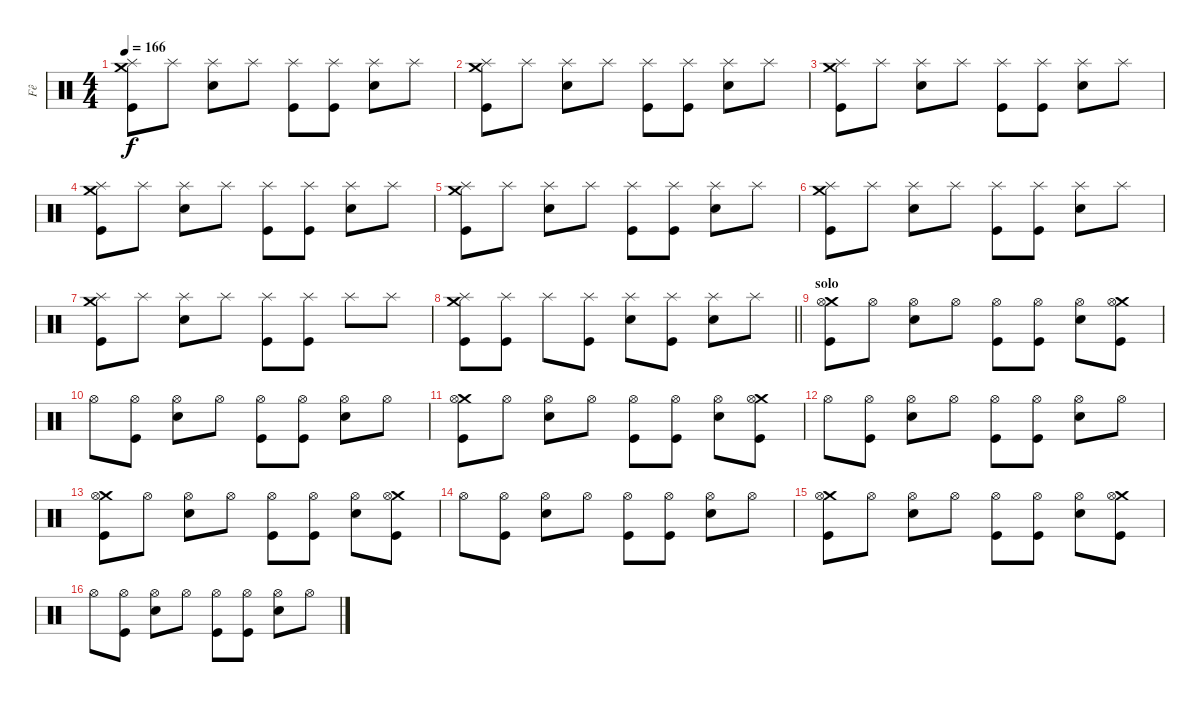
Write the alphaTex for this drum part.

\track ("Fê" "Fê") {instrument percussion}
\staff {score}
\articulation defaults
\ts (4 4)
\tempo 166
\clef neutral
\ks c
("Crash medium (hit)" "Splash (hit)" "Kick (hit)").8{dy f} "Splash (hit)".8 ("Splash (hit)" "Electric Snare (hit)").8 "Splash (hit)".8 ("Splash (hit)" "Kick (hit)").8 ("Splash (hit)" "Kick (hit)").8 ("Splash (hit)" "Electric Snare (hit)").8 "Splash (hit)".8 |
("Crash medium (hit)" "Splash (hit)" "Kick (hit)").8 "Splash (hit)".8 ("Splash (hit)" "Electric Snare (hit)").8 "Splash (hit)".8 ("Splash (hit)" "Kick (hit)").8 ("Splash (hit)" "Kick (hit)").8 ("Splash (hit)" "Electric Snare (hit)").8 "Splash (hit)".8 |
("Crash medium (hit)" "Splash (hit)" "Kick (hit)").8 "Splash (hit)".8 ("Splash (hit)" "Electric Snare (hit)").8 "Splash (hit)".8 ("Splash (hit)" "Kick (hit)").8 ("Splash (hit)" "Kick (hit)").8 ("Splash (hit)" "Electric Snare (hit)").8 "Splash (hit)".8 |
("Crash medium (hit)" "Splash (hit)" "Kick (hit)").8 "Splash (hit)".8 ("Splash (hit)" "Electric Snare (hit)").8 "Splash (hit)".8 ("Splash (hit)" "Kick (hit)").8 ("Splash (hit)" "Kick (hit)").8 ("Splash (hit)" "Electric Snare (hit)").8 "Splash (hit)".8 |
("Crash medium (hit)" "Splash (hit)" "Kick (hit)").8 "Splash (hit)".8 ("Splash (hit)" "Electric Snare (hit)").8 "Splash (hit)".8 ("Splash (hit)" "Kick (hit)").8 ("Splash (hit)" "Kick (hit)").8 ("Splash (hit)" "Electric Snare (hit)").8 "Splash (hit)".8 |
("Crash medium (hit)" "Splash (hit)" "Kick (hit)").8 "Splash (hit)".8 ("Splash (hit)" "Electric Snare (hit)").8 "Splash (hit)".8 ("Splash (hit)" "Kick (hit)").8 ("Splash (hit)" "Kick (hit)").8 ("Splash (hit)" "Electric Snare (hit)").8 "Splash (hit)".8 |
("Crash medium (hit)" "Splash (hit)" "Kick (hit)").8 "Splash (hit)".8 ("Splash (hit)" "Electric Snare (hit)").8 "Splash (hit)".8 ("Splash (hit)" "Kick (hit)").8 ("Splash (hit)" "Kick (hit)").8 "Splash (hit)".8 "Splash (hit)".8 |
\barLineRight lightlight
("Crash medium (hit)" "Splash (hit)" "Kick (hit)").8 ("Splash (hit)" "Kick (hit)").8 "Splash (hit)".8 ("Splash (hit)" "Kick (hit)").8 ("Splash (hit)" "Electric Snare (hit)").8 ("Splash (hit)" "Kick (hit)").8 ("Splash (hit)" "Electric Snare (hit)").8 "Splash (hit)".8 |
\section ("" "solo")
("Crash medium (hit)" "Hi-Hat (open)" "Kick (hit)").8 "Hi-Hat (open)".8 ("Hi-Hat (open)" "Electric Snare (hit)").8 "Hi-Hat (open)".8 ("Hi-Hat (open)" "Kick (hit)").8 ("Hi-Hat (open)" "Kick (hit)").8 ("Hi-Hat (open)" "Electric Snare (hit)").8 ("Crash medium (hit)" "Hi-Hat (open)" "Kick (hit)").8 |
"Hi-Hat (open)".8 ("Hi-Hat (open)" "Kick (hit)").8 ("Hi-Hat (open)" "Electric Snare (hit)").8 "Hi-Hat (open)".8 ("Hi-Hat (open)" "Kick (hit)").8 ("Hi-Hat (open)" "Kick (hit)").8 ("Hi-Hat (open)" "Electric Snare (hit)").8 "Hi-Hat (open)".8 |
("Crash medium (hit)" "Hi-Hat (open)" "Kick (hit)").8 "Hi-Hat (open)".8 ("Hi-Hat (open)" "Electric Snare (hit)").8 "Hi-Hat (open)".8 ("Hi-Hat (open)" "Kick (hit)").8 ("Hi-Hat (open)" "Kick (hit)").8 ("Hi-Hat (open)" "Electric Snare (hit)").8 ("Crash medium (hit)" "Hi-Hat (open)" "Kick (hit)").8 |
"Hi-Hat (open)".8 ("Hi-Hat (open)" "Kick (hit)").8 ("Hi-Hat (open)" "Electric Snare (hit)").8 "Hi-Hat (open)".8 ("Hi-Hat (open)" "Kick (hit)").8 ("Hi-Hat (open)" "Kick (hit)").8 ("Hi-Hat (open)" "Electric Snare (hit)").8 "Hi-Hat (open)".8 |
("Crash medium (hit)" "Hi-Hat (open)" "Kick (hit)").8 "Hi-Hat (open)".8 ("Hi-Hat (open)" "Electric Snare (hit)").8 "Hi-Hat (open)".8 ("Hi-Hat (open)" "Kick (hit)").8 ("Hi-Hat (open)" "Kick (hit)").8 ("Hi-Hat (open)" "Electric Snare (hit)").8 ("Crash medium (hit)" "Hi-Hat (open)" "Kick (hit)").8 |
"Hi-Hat (open)".8 ("Hi-Hat (open)" "Kick (hit)").8 ("Hi-Hat (open)" "Electric Snare (hit)").8 "Hi-Hat (open)".8 ("Hi-Hat (open)" "Kick (hit)").8 ("Hi-Hat (open)" "Kick (hit)").8 ("Hi-Hat (open)" "Electric Snare (hit)").8 "Hi-Hat (open)".8 |
("Crash medium (hit)" "Hi-Hat (open)" "Kick (hit)").8 "Hi-Hat (open)".8 ("Hi-Hat (open)" "Electric Snare (hit)").8 "Hi-Hat (open)".8 ("Hi-Hat (open)" "Kick (hit)").8 ("Hi-Hat (open)" "Kick (hit)").8 ("Hi-Hat (open)" "Electric Snare (hit)").8 ("Crash medium (hit)" "Hi-Hat (open)" "Kick (hit)").8 |
"Hi-Hat (open)".8 ("Hi-Hat (open)" "Kick (hit)").8 ("Hi-Hat (open)" "Electric Snare (hit)").8 "Hi-Hat (open)".8 ("Hi-Hat (open)" "Kick (hit)").8 ("Hi-Hat (open)" "Kick (hit)").8 ("Hi-Hat (open)" "Electric Snare (hit)").8 "Hi-Hat (open)".8
